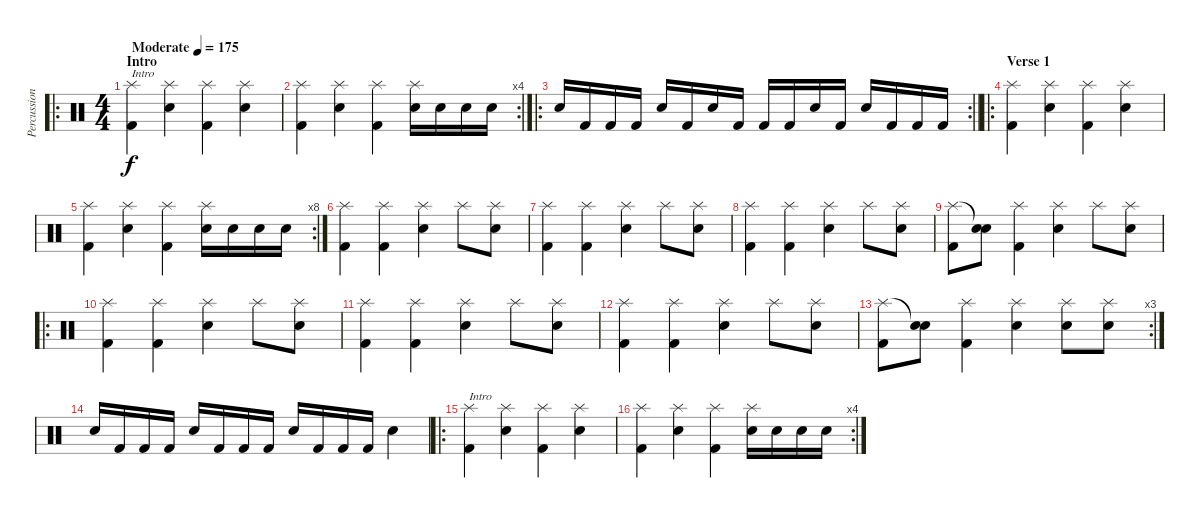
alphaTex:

\track ("Percussion" "Percussion") {instrument percussion}
\staff {score}
\articulation defaults
\ro
\ts (4 4)
\section ("" "Intro")
\tempo (175 "Moderate")
\clef neutral
\ks c
("Splash (hit)" "Kick (hit) 2").4{txt "Intro" dy f} ("Splash (hit)" "Electric Snare (hit)").4 ("Splash (hit)" "Kick (hit) 2").4 ("Splash (hit)" "Electric Snare (hit)").4 |
\rc 4
("Splash (hit)" "Kick (hit) 2").4 ("Splash (hit)" "Electric Snare (hit)").4 ("Splash (hit)" "Kick (hit) 2").4 ("Splash (hit)" "Electric Snare (hit)").16 "Electric Snare (hit)".16 "Electric Snare (hit)".16 "Electric Snare (hit)".16 |
\ro
\rc 2
\barLineRight lightlight "Electric Snare (hit)".16 "Kick (hit) 2".16 "Kick (hit) 2".16 "Kick (hit) 2".16 "Electric Snare (hit)".16 "Kick (hit) 2".16 "Electric Snare (hit)".16 "Kick (hit) 2".16 "Kick (hit) 2".16 "Kick (hit) 2".16 "Electric Snare (hit)".16 "Kick (hit) 2".16 "Electric Snare (hit)".16 "Kick (hit) 2".16 "Kick (hit) 2".16 "Kick (hit) 2".16
|
\ro
\section ("" "Verse 1")
("Splash (hit)" "Kick (hit) 2").4 ("Splash (hit)" "Electric Snare (hit)").4 ("Splash (hit)" "Kick (hit) 2").4 ("Splash (hit)" "Electric Snare (hit)").4 |
\rc 8
("Splash (hit)" "Kick (hit) 2").4 ("Splash (hit)" "Electric Snare (hit)").4 ("Splash (hit)" "Kick (hit) 2").4 ("Splash (hit)" "Electric Snare (hit)").16 "Electric Snare (hit)".16 "Electric Snare (hit)".16 "Electric Snare (hit)".16 |
("Splash (hit)" "Kick (hit) 2").4 ("Splash (hit)" "Kick (hit) 2").4 ("Splash (hit)" "Electric Snare (hit)").4 "Splash (hit)".8 ("Splash (hit)" "Electric Snare (hit)").8 |
("Splash (hit)" "Kick (hit) 2").4 ("Splash (hit)" "Kick (hit) 2").4 ("Splash (hit)" "Electric Snare (hit)").4 "Splash (hit)".8 ("Splash (hit)" "Electric Snare (hit)").8 |
("Splash (hit)" "Kick (hit) 2").4 ("Splash (hit)" "Kick (hit) 2").4 ("Splash (hit)" "Electric Snare (hit)").4 "Splash (hit)".8 ("Splash (hit)" "Electric Snare (hit)").8 |
("Splash (hit)" "Kick (hit) 2").8 ("Snare (hit)"{t} "Electric Snare (hit)").8 ("Splash (hit)" "Kick (hit) 2").4 ("Splash (hit)" "Electric Snare (hit)").4 "Splash (hit)".8 ("Splash (hit)" "Electric Snare (hit)").8 |
\ro
("Splash (hit)" "Kick (hit) 2").4 ("Splash (hit)" "Kick (hit) 2").4 ("Splash (hit)" "Electric Snare (hit)").4 "Splash (hit)".8 ("Splash (hit)" "Electric Snare (hit)").8 |
("Splash (hit)" "Kick (hit) 2").4 ("Splash (hit)" "Kick (hit) 2").4 ("Splash (hit)" "Electric Snare (hit)").4 "Splash (hit)".8 ("Splash (hit)" "Electric Snare (hit)").8 |
("Splash (hit)" "Kick (hit) 2").4 ("Splash (hit)" "Kick (hit) 2").4 ("Splash (hit)" "Electric Snare (hit)").4 "Splash (hit)".8 ("Splash (hit)" "Electric Snare (hit)").8 |
\rc 3
("Splash (hit)" "Kick (hit) 2").8 ("Snare (hit)"{t} "Electric Snare (hit)").8 ("Splash (hit)" "Kick (hit) 2").4 ("Splash (hit)" "Electric Snare (hit)").4 ("Splash (hit)" "Electric Snare (hit)").8 ("Splash (hit)" "Electric Snare (hit)").8 |
"Electric Snare (hit)".16 "Kick (hit) 2".16 "Kick (hit) 2".16 "Kick (hit) 2".16 "Electric Snare (hit)".16 "Kick (hit) 2".16 "Kick (hit) 2".16 "Kick (hit) 2".16 "Electric Snare (hit)".16 "Kick (hit) 2".16 "Kick (hit) 2".16 "Kick (hit) 2".16 "Electric Snare (hit)".4 |
\ro
("Splash (hit)" "Kick (hit) 2").4{txt "Intro"} ("Splash (hit)" "Electric Snare (hit)").4 ("Splash (hit)" "Kick (hit) 2").4 ("Splash (hit)" "Electric Snare (hit)").4 |
\rc 4
("Splash (hit)" "Kick (hit) 2").4 ("Splash (hit)" "Electric Snare (hit)").4 ("Splash (hit)" "Kick (hit) 2").4 ("Splash (hit)" "Electric Snare (hit)").16 "Electric Snare (hit)".16 "Electric Snare (hit)".16 "Electric Snare (hit)".16
